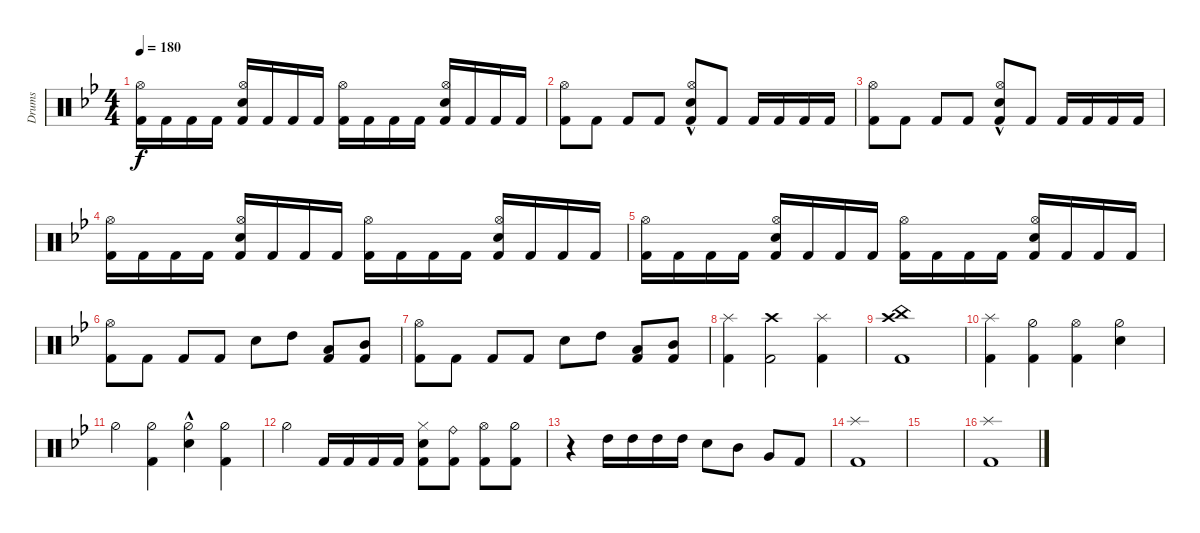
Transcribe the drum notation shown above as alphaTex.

\defaultSystemsLayout 4
\bracketExtendMode groupsimilarinstruments
\otherSystemsTrackNameOrientation horizontal
\track ("Drumkit" "Drums") {instrument percussion}
\staff {score}
\articulation defaults
\ts (4 4)
\tempo 180
\clef neutral
\scale
0.333333
\ks bb
("Kick (hit) 2"{acc forcenatural} "Hi-Hat (open)"{acc forcenatural}).16{dy f} "Kick (hit) 2"{acc forcenatural}.16 "Kick (hit) 2"{acc forcenatural}.16 "Kick (hit) 2"{acc forcenatural}.16 ("Kick (hit) 2"{acc forcenatural} "Hi-Hat (open)"{acc forcenatural} "Snare (hit) 2"{acc forcenatural}).16 "Kick (hit) 2"{acc forcenatural}.16 "Kick (hit) 2"{acc forcenatural}.16 "Kick (hit) 2"{acc forcenatural}.16 ("Kick (hit) 2"{acc forcenatural} "Hi-Hat (open)"{acc forcenatural}).16 "Kick (hit) 2"{acc forcenatural}.16 "Kick (hit) 2"{acc forcenatural}.16 "Kick (hit) 2"{acc forcenatural}.16 ("Kick (hit) 2"{acc forcenatural} "Hi-Hat (open)"{acc forcenatural} "Snare (hit) 2"{acc forcenatural}).16 "Kick (hit) 2"{acc forcenatural}.16 "Kick (hit) 2"{acc forcenatural}.16 "Kick (hit) 2"{acc forcenatural}.16 |
\scale
0.333333 ("Kick (hit) 2"{acc forcenatural} "Hi-Hat (open)"{acc forcenatural}).8 "Kick (hit) 2"{acc forcenatural}.8 "Kick (hit) 2"{acc forcenatural}.8 "Kick (hit) 2"{acc forcenatural}.8 ("Kick (hit) 2"{acc forcenatural} "Hi-Hat (open)"{acc forcenatural} "Snare (hit) 2"{hac acc forcenatural}).8 "Kick (hit) 2"{acc forcenatural}.8 "Kick (hit) 2"{acc forcenatural}.16 "Kick (hit) 2"{acc forcenatural}.16 "Kick (hit) 2"{acc forcenatural}.16 "Kick (hit) 2"{acc forcenatural}.16 |
\scale
0.333333 ("Kick (hit) 2"{acc forcenatural} "Hi-Hat (open)"{acc forcenatural}).8 "Kick (hit) 2"{acc forcenatural}.8 "Kick (hit) 2"{acc forcenatural}.8 "Kick (hit) 2"{acc forcenatural}.8 ("Kick (hit) 2"{acc forcenatural} "Hi-Hat (open)"{acc forcenatural} "Snare (hit) 2"{hac acc forcenatural}).8 "Kick (hit) 2"{acc forcenatural}.8 "Kick (hit) 2"{acc forcenatural}.16 "Kick (hit) 2"{acc forcenatural}.16 "Kick (hit) 2"{acc forcenatural}.16 "Kick (hit) 2"{acc forcenatural}.16 |
\scale
0.333333 ("Kick (hit) 2"{acc forcenatural} "Hi-Hat (open)"{acc forcenatural}).16 "Kick (hit) 2"{acc forcenatural}.16 "Kick (hit) 2"{acc forcenatural}.16 "Kick (hit) 2"{acc forcenatural}.16 ("Kick (hit) 2"{acc forcenatural} "Hi-Hat (open)"{acc forcenatural} "Snare (hit) 2"{acc forcenatural}).16 "Kick (hit) 2"{acc forcenatural}.16 "Kick (hit) 2"{acc forcenatural}.16 "Kick (hit) 2"{acc forcenatural}.16 ("Kick (hit) 2"{acc forcenatural} "Hi-Hat (open)"{acc forcenatural}).16 "Kick (hit) 2"{acc forcenatural}.16 "Kick (hit) 2"{acc forcenatural}.16 "Kick (hit) 2"{acc forcenatural}.16 ("Kick (hit) 2"{acc forcenatural} "Hi-Hat (open)"{acc forcenatural} "Snare (hit) 2"{acc forcenatural}).16 "Kick (hit) 2"{acc forcenatural}.16 "Kick (hit) 2"{acc forcenatural}.16 "Kick (hit) 2"{acc forcenatural}.16 |
\scale
0.333333 ("Kick (hit) 2"{acc forcenatural} "Hi-Hat (open)"{acc forcenatural}).16 "Kick (hit) 2"{acc forcenatural}.16 "Kick (hit) 2"{acc forcenatural}.16 "Kick (hit) 2"{acc forcenatural}.16 ("Kick (hit) 2"{acc forcenatural} "Hi-Hat (open)"{acc forcenatural} "Snare (hit) 2"{acc forcenatural}).16 "Kick (hit) 2"{acc forcenatural}.16 "Kick (hit) 2"{acc forcenatural}.16 "Kick (hit) 2"{acc forcenatural}.16 ("Kick (hit) 2"{acc forcenatural} "Hi-Hat (open)"{acc forcenatural}).16 "Kick (hit) 2"{acc forcenatural}.16 "Kick (hit) 2"{acc forcenatural}.16 "Kick (hit) 2"{acc forcenatural}.16 ("Kick (hit) 2"{acc forcenatural} "Hi-Hat (open)"{acc forcenatural} "Snare (hit) 2"{acc forcenatural}).16 "Kick (hit) 2"{acc forcenatural}.16 "Kick (hit) 2"{acc forcenatural}.16 "Kick (hit) 2"{acc forcenatural}.16 |
\scale
0.333333 ("Kick (hit) 2"{acc forcenatural} "Hi-Hat (open)"{acc forcenatural}).8 "Kick (hit) 2"{acc forcenatural}.8 "Kick (hit) 2"{acc forcenatural}.8 "Kick (hit) 2"{acc forcenatural}.8 "Snare (hit) 2"{acc forcenatural}.8 "High Tom (hit)"{acc forcenatural}.8 ("Low Tom (hit)"{acc forcenatural} "Kick (hit) 2"{acc forcenatural}).8 ("Mid Tom (hit)"{acc forcenatural} "Kick (hit) 2"{acc forcenatural}).8 |
\scale
0.333333 ("Kick (hit) 2"{acc forcenatural} "Hi-Hat (open)"{acc forcenatural}).8 "Kick (hit) 2"{acc forcenatural}.8 "Kick (hit) 2"{acc forcenatural}.8 "Kick (hit) 2"{acc forcenatural}.8 "Snare (hit) 2"{acc forcenatural}.8 "High Tom (hit)"{acc forcenatural}.8 ("Low Tom (hit)"{acc forcenatural} "Kick (hit) 2"{acc forcenatural}).8 ("Mid Tom (hit)"{acc forcenatural} "Kick (hit) 2"{acc forcenatural}).8 |
\scale
0.333333 ("Splash (hit)"{acc forcenatural} "Kick (hit) 2"{acc forcenatural}).4 ("Crash high (hit)"{acc forcenatural} "Kick (hit) 2"{acc forcenatural}).2 ("Kick (hit) 2"{acc forcenatural} "Splash (hit)"{acc forcenatural}).4 |
\scale
0.333333 ("Kick (hit) 2"{acc forcenatural} "Crash high (hit)"{acc forcenatural} "China (hit)"{acc forcenatural}).1 |
\scale
0.333333 ("Splash (hit)"{acc forcenatural} "Kick (hit) 2"{acc forcenatural}).4 ("Kick (hit) 2"{acc forcenatural} "Hi-Hat (half)"{acc forcenatural}).4 ("Kick (hit) 2"{acc forcenatural} "Hi-Hat (open)"{acc forcenatural}).4 ("Hi-Hat (half)"{acc forcenatural} "Snare (hit) 2"{acc forcenatural}).4 |
\scale
0.333333 "Hi-Hat (half)"{acc forcenatural}.4 ("Kick (hit) 2"{acc forcenatural} "Hi-Hat (half)"{acc forcenatural}).4 ("Snare (hit) 2"{hac acc forcenatural} "Hi-Hat (half)"{acc forcenatural}).4 ("Hi-Hat (half)"{acc forcenatural} "Kick (hit) 2"{acc forcenatural}).4 |
\scale
0.333333 "Hi-Hat (half)"{acc forcenatural}.4 "Kick (hit) 2"{acc forcenatural}.16 "Kick (hit) 2"{acc forcenatural}.16 "Kick (hit) 2"{acc forcenatural}.16 "Kick (hit) 2"{acc forcenatural}.16 ("Kick (hit) 2"{acc forcenatural} "Hi-Hat (closed)"{acc forcenatural} "Snare (hit) 2"{acc forcenatural}).8 ("Kick (hit) 2"{acc forcenatural} "Ride (bell)"{acc forcenatural}).8 ("Hi-Hat (open)"{acc forcenatural} "Kick (hit) 2"{acc forcenatural}).8 ("Kick (hit) 2"{acc forcenatural} "Hi-Hat (half)"{acc forcenatural}).8 |
\scale
0.333333 r.4 "High Tom (hit)"{acc forcenatural}.16 "High Tom (hit)"{acc forcenatural}.16 "High Tom (hit)"{acc forcenatural}.16 "High Tom (hit)"{acc forcenatural}.16 "Snare (hit) 2"{acc forcenatural}.8 "Mid Tom (hit)"{acc forcenatural}.8 "Very Low Tom (hit)"{acc forcenatural}.8 "Kick (hit) 2"{acc forcenatural}.8 |
\scale
0.333333 ("Splash (hit)"{acc forcenatural} "Kick (hit) 2"{acc forcenatural}).1 |
\scale
0.333333 |
\scale
0.333333 ("Splash (hit)"{acc forcenatural} "Kick (hit) 2"{acc forcenatural}).1
